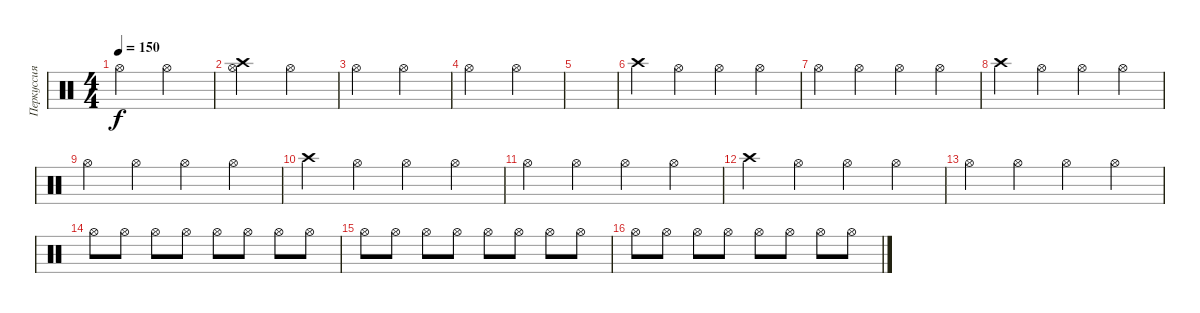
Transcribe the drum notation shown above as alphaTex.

\track ("Перкуссия" "Перкуссия") {instrument percussion}
\staff {score}
\articulation defaults
\ts (4 4)
\tempo 150
\clef neutral
\ks c "Hi-Hat (open)".2{dy f} "Hi-Hat (open)".2
|
("Crash high (hit)" "Hi-Hat (open)").2 "Hi-Hat (open)".2 |
"Hi-Hat (open)".2 "Hi-Hat (open)".2 |
"Hi-Hat (open)".2 "Hi-Hat (open)".2 |
|
"Crash high (hit)".4 "Hi-Hat (open)".4 "Hi-Hat (open)".4 "Hi-Hat (open)".4 |
"Hi-Hat (open)".4 "Hi-Hat (open)".4 "Hi-Hat (open)".4 "Hi-Hat (open)".4 |
"Crash high (hit)".4 "Hi-Hat (open)".4 "Hi-Hat (open)".4 "Hi-Hat (open)".4 |
"Hi-Hat (open)".4 "Hi-Hat (open)".4 "Hi-Hat (open)".4 "Hi-Hat (open)".4 |
"Crash high (hit)".4 "Hi-Hat (open)".4 "Hi-Hat (open)".4 "Hi-Hat (open)".4 |
"Hi-Hat (open)".4 "Hi-Hat (open)".4 "Hi-Hat (open)".4 "Hi-Hat (open)".4 |
"Crash high (hit)".4 "Hi-Hat (open)".4 "Hi-Hat (open)".4 "Hi-Hat (open)".4 |
"Hi-Hat (open)".4 "Hi-Hat (open)".4 "Hi-Hat (open)".4 "Hi-Hat (open)".4 |
"Hi-Hat (open)".8 "Hi-Hat (open)".8 "Hi-Hat (open)".8 "Hi-Hat (open)".8 "Hi-Hat (open)".8 "Hi-Hat (open)".8 "Hi-Hat (open)".8 "Hi-Hat (open)".8 |
"Hi-Hat (open)".8 "Hi-Hat (open)".8 "Hi-Hat (open)".8 "Hi-Hat (open)".8 "Hi-Hat (open)".8 "Hi-Hat (open)".8 "Hi-Hat (open)".8 "Hi-Hat (open)".8 |
"Hi-Hat (open)".8 "Hi-Hat (open)".8 "Hi-Hat (open)".8 "Hi-Hat (open)".8 "Hi-Hat (open)".8 "Hi-Hat (open)".8 "Hi-Hat (open)".8 "Hi-Hat (open)".8
